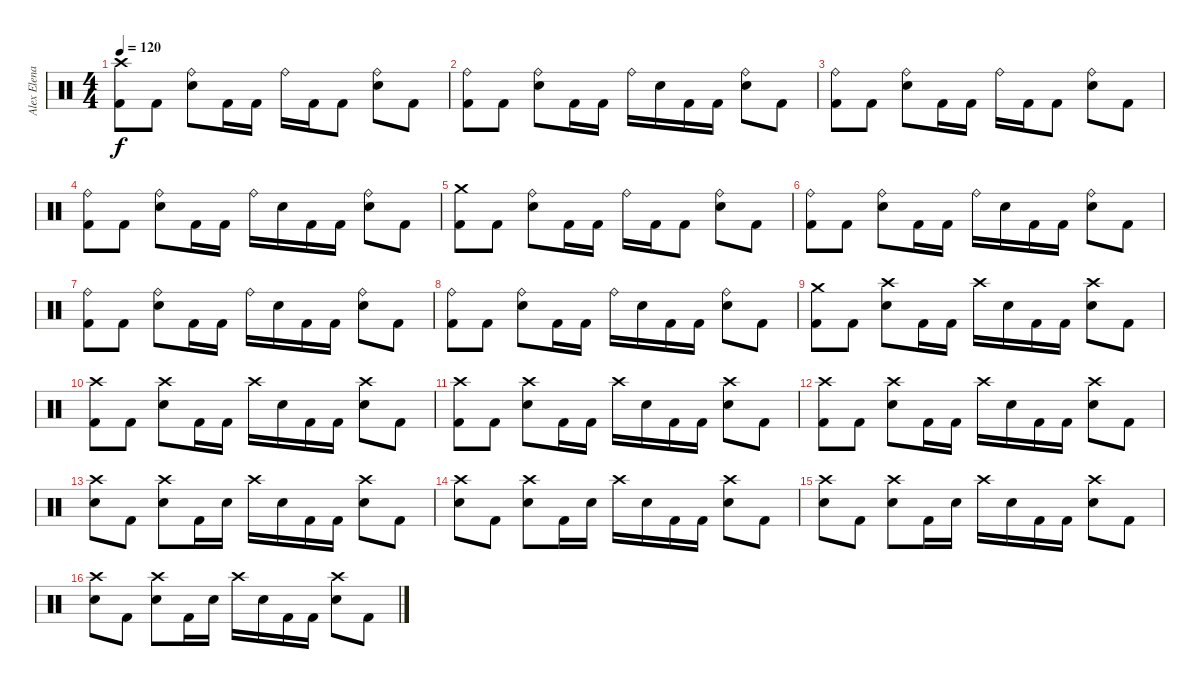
\track ("Alex Elena (Percussion)" "Alex Elena") {instrument percussion}
\staff {score}
\articulation defaults
\ts (4 4)
\tempo 120
\clef neutral
\ks c
("Crash high (hit)" "Kick (hit) 2").8{dy f} "Kick (hit) 2".8 ("Ride (bell)" "Snare (hit) 2").8 "Kick (hit) 2".16 "Kick (hit) 2".16 "Ride (bell)".16 "Kick (hit) 2".16 "Kick (hit) 2".8 ("Ride (bell)" "Snare (hit) 2").8 "Kick (hit) 2".8 |
("Ride (bell)" "Kick (hit) 2").8 "Kick (hit) 2".8 ("Ride (bell)" "Snare (hit) 2").8 "Kick (hit) 2".16 "Kick (hit) 2".16 "Ride (bell)".16 "Snare (hit) 2".16 "Kick (hit) 2".16 "Kick (hit) 2".16 ("Ride (bell)" "Snare (hit) 2").8 "Kick (hit) 2".8 |
("Ride (bell)" "Kick (hit) 2").8 "Kick (hit) 2".8 ("Ride (bell)" "Snare (hit) 2").8 "Kick (hit) 2".16 "Kick (hit) 2".16 "Ride (bell)".16 "Kick (hit) 2".16 "Kick (hit) 2".8 ("Ride (bell)" "Snare (hit) 2").8 "Kick (hit) 2".8 |
("Ride (bell)" "Kick (hit) 2").8 "Kick (hit) 2".8 ("Ride (bell)" "Snare (hit) 2").8 "Kick (hit) 2".16 "Kick (hit) 2".16 "Ride (bell)".16 "Snare (hit) 2".16 "Kick (hit) 2".16 "Kick (hit) 2".16 ("Ride (bell)" "Snare (hit) 2").8 "Kick (hit) 2".8 |
("Crash medium (hit)" "Kick (hit) 2").8 "Kick (hit) 2".8 ("Ride (bell)" "Snare (hit) 2").8 "Kick (hit) 2".16 "Kick (hit) 2".16 "Ride (bell)".16 "Kick (hit) 2".16 "Kick (hit) 2".8 ("Ride (bell)" "Snare (hit) 2").8 "Kick (hit) 2".8 |
("Ride (bell)" "Kick (hit) 2").8 "Kick (hit) 2".8 ("Ride (bell)" "Snare (hit) 2").8 "Kick (hit) 2".16 "Kick (hit) 2".16 "Ride (bell)".16 "Snare (hit) 2".16 "Kick (hit) 2".16 "Kick (hit) 2".16 ("Ride (bell)" "Snare (hit) 2").8 "Kick (hit) 2".8 |
("Ride (bell)" "Kick (hit) 2").8 "Kick (hit) 2".8 ("Ride (bell)" "Snare (hit) 2").8 "Kick (hit) 2".16 "Kick (hit) 2".16 "Ride (bell)".16 "Snare (hit) 2".16 "Kick (hit) 2".16 "Kick (hit) 2".16 ("Ride (bell)" "Snare (hit) 2").8 "Kick (hit) 2".8 |
("Ride (bell)" "Kick (hit) 2").8 "Kick (hit) 2".8 ("Ride (bell)" "Snare (hit) 2").8 "Kick (hit) 2".16 "Kick (hit) 2".16 "Ride (bell)".16 "Snare (hit) 2".16 "Kick (hit) 2".16 "Kick (hit) 2".16 ("Ride (bell)" "Snare (hit) 2").8 "Kick (hit) 2".8 |
("Crash medium (hit)" "Kick (hit) 2").8 "Kick (hit) 2".8 ("Crash high (hit)" "Snare (hit) 2").8 "Kick (hit) 2".16 "Kick (hit) 2".16 "Crash high (hit)".16 "Snare (hit) 2".16 "Kick (hit) 2".16 "Kick (hit) 2".16 ("Crash high (hit)" "Snare (hit) 2").8 "Kick (hit) 2".8 |
("Crash high (hit)" "Kick (hit) 2").8 "Kick (hit) 2".8 ("Crash high (hit)" "Snare (hit) 2").8 "Kick (hit) 2".16 "Kick (hit) 2".16 "Crash high (hit)".16 "Snare (hit) 2".16 "Kick (hit) 2".16 "Kick (hit) 2".16 ("Crash high (hit)" "Snare (hit) 2").8 "Kick (hit) 2".8 |
("Crash high (hit)" "Kick (hit) 2").8 "Kick (hit) 2".8 ("Crash high (hit)" "Snare (hit) 2").8 "Kick (hit) 2".16 "Kick (hit) 2".16 "Crash high (hit)".16 "Snare (hit) 2".16 "Kick (hit) 2".16 "Kick (hit) 2".16 ("Crash high (hit)" "Snare (hit) 2").8 "Kick (hit) 2".8 |
("Crash high (hit)" "Kick (hit) 2").8 "Kick (hit) 2".8 ("Crash high (hit)" "Snare (hit) 2").8 "Kick (hit) 2".16 "Kick (hit) 2".16 "Crash high (hit)".16 "Snare (hit) 2".16 "Kick (hit) 2".16 "Kick (hit) 2".16 ("Crash high (hit)" "Snare (hit) 2").8 "Kick (hit) 2".8 |
("Crash high (hit)" "Snare (hit) 2").8 "Kick (hit) 2".8 ("Crash high (hit)" "Snare (hit) 2").8 "Kick (hit) 2".16 "Snare (hit) 2".16 "Crash high (hit)".16 "Snare (hit) 2".16 "Kick (hit) 2".16 "Kick (hit) 2".16 ("Crash high (hit)" "Snare (hit) 2").8 "Kick (hit) 2".8 |
("Crash high (hit)" "Snare (hit) 2").8 "Kick (hit) 2".8 ("Crash high (hit)" "Snare (hit) 2").8 "Kick (hit) 2".16 "Snare (hit) 2".16 "Crash high (hit)".16 "Snare (hit) 2".16 "Kick (hit) 2".16 "Kick (hit) 2".16 ("Crash high (hit)" "Snare (hit) 2").8 "Kick (hit) 2".8 |
("Crash high (hit)" "Snare (hit) 2").8 "Kick (hit) 2".8 ("Crash high (hit)" "Snare (hit) 2").8 "Kick (hit) 2".16 "Snare (hit) 2".16 "Crash high (hit)".16 "Snare (hit) 2".16 "Kick (hit) 2".16 "Kick (hit) 2".16 ("Crash high (hit)" "Snare (hit) 2").8 "Kick (hit) 2".8 |
("Crash high (hit)" "Snare (hit) 2").8 "Kick (hit) 2".8 ("Crash high (hit)" "Snare (hit) 2").8 "Kick (hit) 2".16 "Snare (hit) 2".16 "Crash high (hit)".16 "Snare (hit) 2".16 "Kick (hit) 2".16 "Kick (hit) 2".16 ("Crash high (hit)" "Snare (hit) 2").8 "Kick (hit) 2".8
